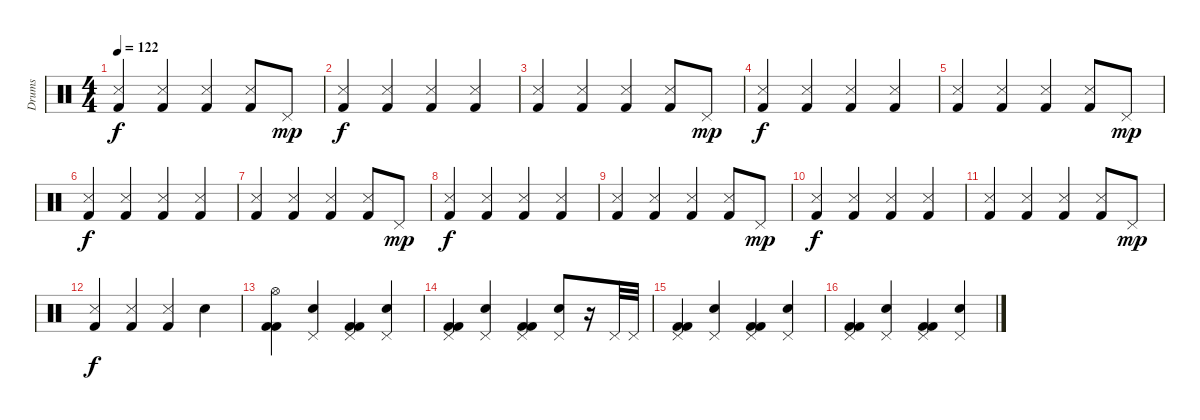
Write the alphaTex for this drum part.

\track ("Drums" "Drums") {instrument percussion}
\staff {score}
\articulation defaults
\ts (4 4)
\tempo 122
\clef neutral
\ks c
("Kick (hit) 2" "Snare (side stick) 3").4{dy f} ("Kick (hit) 2" "Snare (side stick) 3").4 ("Kick (hit) 2" "Snare (side stick) 3").4 ("Kick (hit) 2" "Snare (side stick) 3").8 "Pedal Hi-Hat (hit)".8{dy mp} |
("Kick (hit) 2" "Snare (side stick) 3").4{dy f} ("Kick (hit) 2" "Snare (side stick) 3").4 ("Kick (hit) 2" "Snare (side stick) 3").4 ("Kick (hit) 2" "Snare (side stick) 3").4 |
("Kick (hit) 2" "Snare (side stick) 3").4 ("Kick (hit) 2" "Snare (side stick) 3").4 ("Kick (hit) 2" "Snare (side stick) 3").4 ("Kick (hit) 2" "Snare (side stick) 3").8 "Pedal Hi-Hat (hit)".8{dy mp} |
("Kick (hit) 2" "Snare (side stick) 3").4{dy f} ("Kick (hit) 2" "Snare (side stick) 3").4 ("Kick (hit) 2" "Snare (side stick) 3").4 ("Kick (hit) 2" "Snare (side stick) 3").4 |
("Kick (hit) 2" "Snare (side stick) 3").4 ("Kick (hit) 2" "Snare (side stick) 3").4 ("Kick (hit) 2" "Snare (side stick) 3").4 ("Kick (hit) 2" "Snare (side stick) 3").8 "Pedal Hi-Hat (hit)".8{dy mp} |
("Kick (hit) 2" "Snare (side stick) 3").4{dy f} ("Kick (hit) 2" "Snare (side stick) 3").4 ("Kick (hit) 2" "Snare (side stick) 3").4 ("Kick (hit) 2" "Snare (side stick) 3").4 |
("Kick (hit) 2" "Snare (side stick) 3").4 ("Kick (hit) 2" "Snare (side stick) 3").4 ("Kick (hit) 2" "Snare (side stick) 3").4 ("Kick (hit) 2" "Snare (side stick) 3").8 "Pedal Hi-Hat (hit)".8{dy mp} |
("Kick (hit) 2" "Snare (side stick) 3").4{dy f} ("Kick (hit) 2" "Snare (side stick) 3").4 ("Kick (hit) 2" "Snare (side stick) 3").4 ("Kick (hit) 2" "Snare (side stick) 3").4 |
("Kick (hit) 2" "Snare (side stick) 3").4 ("Kick (hit) 2" "Snare (side stick) 3").4 ("Kick (hit) 2" "Snare (side stick) 3").4 ("Kick (hit) 2" "Snare (side stick) 3").8 "Pedal Hi-Hat (hit)".8{dy mp} |
("Kick (hit) 2" "Snare (side stick) 3").4{dy f} ("Kick (hit) 2" "Snare (side stick) 3").4 ("Kick (hit) 2" "Snare (side stick) 3").4 ("Kick (hit) 2" "Snare (side stick) 3").4 |
("Kick (hit) 2" "Snare (side stick) 3").4 ("Kick (hit) 2" "Snare (side stick) 3").4 ("Kick (hit) 2" "Snare (side stick) 3").4 ("Kick (hit) 2" "Snare (side stick) 3").8 "Pedal Hi-Hat (hit)".8{dy mp} |
("Kick (hit) 2" "Snare (side stick) 3").4{dy f} ("Kick (hit) 2" "Snare (side stick) 3").4 ("Kick (hit) 2" "Snare (side stick) 3").4 "Snare (hit) 2".4 |
("Hi-Hat (open)" "Kick (hit) 2" "Kick (hit) 2").4 ("Pedal Hi-Hat (hit)" "Snare (hit) 2").4 ("Pedal Hi-Hat (hit)" "Kick (hit) 2" "Kick (hit) 2").4 ("Pedal Hi-Hat (hit)" "Snare (hit) 2").4 |
("Pedal Hi-Hat (hit)" "Kick (hit) 2" "Kick (hit) 2").4 ("Pedal Hi-Hat (hit)" "Snare (hit) 2").4 ("Pedal Hi-Hat (hit)" "Kick (hit) 2" "Kick (hit) 2").4 ("Pedal Hi-Hat (hit)" "Snare (hit) 2").8 r.16 "Pedal Hi-Hat (hit)".32 "Pedal Hi-Hat (hit)".32 |
("Pedal Hi-Hat (hit)" "Kick (hit) 2" "Kick (hit) 2").4 ("Pedal Hi-Hat (hit)" "Snare (hit) 2").4 ("Pedal Hi-Hat (hit)" "Kick (hit) 2" "Kick (hit) 2").4 ("Pedal Hi-Hat (hit)" "Snare (hit) 2").4 |
("Pedal Hi-Hat (hit)" "Kick (hit) 2" "Kick (hit) 2").4 ("Pedal Hi-Hat (hit)" "Snare (hit) 2").4 ("Pedal Hi-Hat (hit)" "Kick (hit) 2" "Kick (hit) 2").4 ("Pedal Hi-Hat (hit)" "Snare (hit) 2").4
